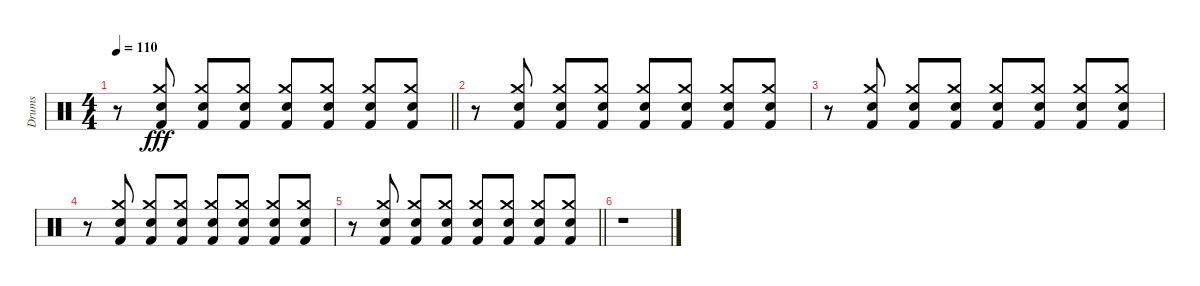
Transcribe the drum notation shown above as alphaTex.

\track ("Drums" "Drums") {instrument percussion}
\staff {score}
\articulation defaults
\ts (4 4)
\tempo 110
\clef neutral
\barLineRight lightlight
\ks c
r.8{dy fff} ("Snare (hit) 2" "Crash medium (hit)" "Kick (hit) 2").8 ("Snare (hit) 2" "Crash medium (hit)" "Kick (hit) 2").8 ("Snare (hit) 2" "Crash medium (hit)" "Kick (hit) 2").8 ("Snare (hit) 2" "Crash medium (hit)" "Kick (hit) 2").8 ("Snare (hit) 2" "Crash medium (hit)" "Kick (hit) 2").8 ("Snare (hit) 2" "Crash medium (hit)" "Kick (hit) 2").8 ("Snare (hit) 2" "Crash medium (hit)" "Kick (hit) 2").8 |
r.8 ("Snare (hit) 2" "Crash medium (hit)" "Kick (hit) 2").8 ("Snare (hit) 2" "Crash medium (hit)" "Kick (hit) 2").8 ("Snare (hit) 2" "Crash medium (hit)" "Kick (hit) 2").8 ("Snare (hit) 2" "Crash medium (hit)" "Kick (hit) 2").8 ("Snare (hit) 2" "Crash medium (hit)" "Kick (hit) 2").8 ("Snare (hit) 2" "Crash medium (hit)" "Kick (hit) 2").8 ("Snare (hit) 2" "Crash medium (hit)" "Kick (hit) 2").8 |
r.8 ("Snare (hit) 2" "Crash medium (hit)" "Kick (hit) 2").8 ("Snare (hit) 2" "Crash medium (hit)" "Kick (hit) 2").8 ("Snare (hit) 2" "Crash medium (hit)" "Kick (hit) 2").8 ("Snare (hit) 2" "Crash medium (hit)" "Kick (hit) 2").8 ("Snare (hit) 2" "Crash medium (hit)" "Kick (hit) 2").8 ("Snare (hit) 2" "Crash medium (hit)" "Kick (hit) 2").8 ("Snare (hit) 2" "Crash medium (hit)" "Kick (hit) 2").8 |
r.8 ("Snare (hit) 2" "Crash medium (hit)" "Kick (hit) 2").8 ("Snare (hit) 2" "Crash medium (hit)" "Kick (hit) 2").8 ("Snare (hit) 2" "Crash medium (hit)" "Kick (hit) 2").8 ("Snare (hit) 2" "Crash medium (hit)" "Kick (hit) 2").8 ("Snare (hit) 2" "Crash medium (hit)" "Kick (hit) 2").8 ("Snare (hit) 2" "Crash medium (hit)" "Kick (hit) 2").8 ("Snare (hit) 2" "Crash medium (hit)" "Kick (hit) 2").8 |
\barLineRight lightlight
r.8 ("Snare (hit) 2" "Crash medium (hit)" "Kick (hit) 2").8 ("Snare (hit) 2" "Crash medium (hit)" "Kick (hit) 2").8 ("Snare (hit) 2" "Crash medium (hit)" "Kick (hit) 2").8 ("Snare (hit) 2" "Crash medium (hit)" "Kick (hit) 2").8 ("Snare (hit) 2" "Crash medium (hit)" "Kick (hit) 2").8 ("Snare (hit) 2" "Crash medium (hit)" "Kick (hit) 2").8 ("Snare (hit) 2" "Crash medium (hit)" "Kick (hit) 2").8 |
r.1
